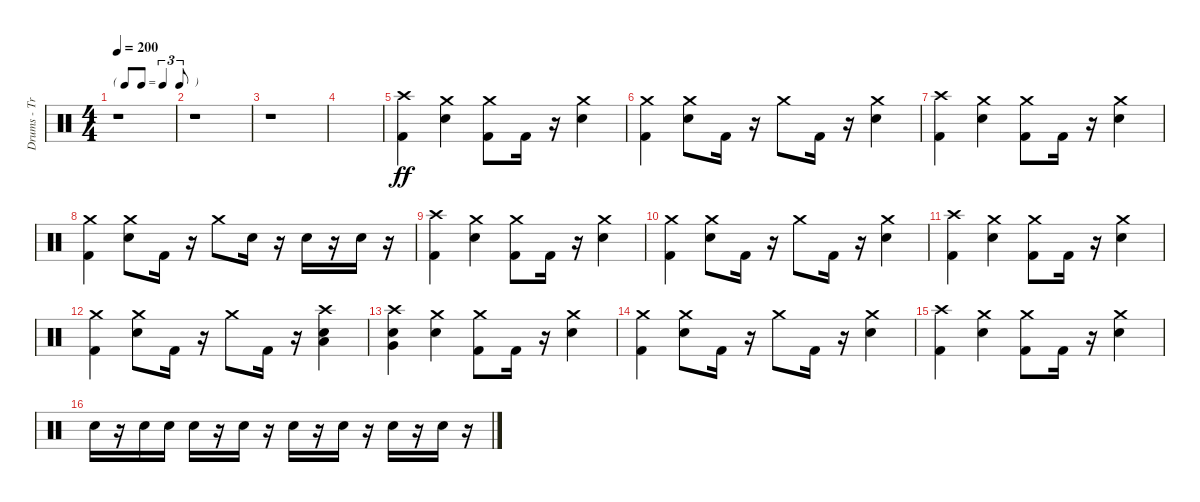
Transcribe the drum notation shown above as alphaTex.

\track ("Drums - Travis" "Drums - Tr") {instrument percussion}
\staff {score}
\articulation defaults
\ts (4 4)
\tf triplet8th
\tempo 200
\clef neutral
\ks c
r.1{dy ff} |
r.1 |
r.1 |
|
("Kick (hit) 2" "Crash high (hit)").4 ("Electric Snare (hit)" "Crash medium (hit)").4 ("Kick (hit) 2" "Crash medium (hit)").8 "Kick (hit) 2".16 r.16 ("Electric Snare (hit)" "Crash medium (hit)").4 |
("Kick (hit) 2" "Crash medium (hit)").4 ("Electric Snare (hit)" "Crash medium (hit)").8 "Kick (hit) 2".16 r.16 "Crash medium (hit)".8 "Kick (hit) 2".16 r.16 ("Electric Snare (hit)" "Crash medium (hit)").4 |
("Kick (hit) 2" "Crash high (hit)").4 ("Electric Snare (hit)" "Crash medium (hit)").4 ("Kick (hit) 2" "Crash medium (hit)").8 "Kick (hit) 2".16 r.16 ("Electric Snare (hit)" "Crash medium (hit)").4 |
("Kick (hit) 2" "Crash medium (hit)").4 ("Electric Snare (hit)" "Crash medium (hit)").8 "Kick (hit) 2".16 r.16 "Crash medium (hit)".8 "Electric Snare (hit)".16 r.16 "Electric Snare (hit)".16 r.16 "Electric Snare (hit)".16 r.16 |
("Kick (hit) 2" "Crash high (hit)").4 ("Electric Snare (hit)" "Crash medium (hit)").4 ("Kick (hit) 2" "Crash medium (hit)").8 "Kick (hit) 2".16 r.16 ("Electric Snare (hit)" "Crash medium (hit)").4 |
("Kick (hit) 2" "Crash medium (hit)").4 ("Electric Snare (hit)" "Crash medium (hit)").8 "Kick (hit) 2".16 r.16 "Crash medium (hit)".8 "Kick (hit) 2".16 r.16 ("Electric Snare (hit)" "Crash medium (hit)").4 |
("Kick (hit) 2" "Crash high (hit)").4 ("Electric Snare (hit)" "Crash medium (hit)").4 ("Kick (hit) 2" "Crash medium (hit)").8 "Kick (hit) 2".16 r.16 ("Electric Snare (hit)" "Crash medium (hit)").4 |
("Kick (hit) 2" "Crash medium (hit)").4 ("Electric Snare (hit)" "Crash medium (hit)").8 "Kick (hit) 2".16 r.16 "Crash medium (hit)".8 "Kick (hit) 2".16 r.16 ("Crash high (hit)" "Electric Snare (hit)" "Low Tom (hit)").4 |
("Electric Snare (hit)" "Very Low Tom (hit)" "Crash high (hit)").4 ("Crash medium (hit)" "Electric Snare (hit)").4 ("Crash medium (hit)" "Kick (hit) 2").8 "Kick (hit) 2".16 r.16 ("Crash medium (hit)" "Electric Snare (hit)").4 |
("Crash medium (hit)" "Kick (hit) 2").4 ("Crash medium (hit)" "Electric Snare (hit)").8 "Kick (hit) 2".16 r.16 "Crash medium (hit)".8 "Kick (hit) 2".16 r.16 ("Electric Snare (hit)" "Crash medium (hit)").4 |
("Kick (hit) 2" "Crash high (hit)").4 ("Electric Snare (hit)" "Crash medium (hit)").4 ("Kick (hit) 2" "Crash medium (hit)").8 "Kick (hit) 2".16 r.16 ("Electric Snare (hit)" "Crash medium (hit)").4 |
"Electric Snare (hit)".16 r.16 "Electric Snare (hit)".16 "Electric Snare (hit)".16 "Electric Snare (hit)".16 r.16 "Electric Snare (hit)".16 r.16 "Electric Snare (hit)".16 r.16 "Electric Snare (hit)".16 r.16 "Electric Snare (hit)".16 r.16 "Electric Snare (hit)".16 r.16
